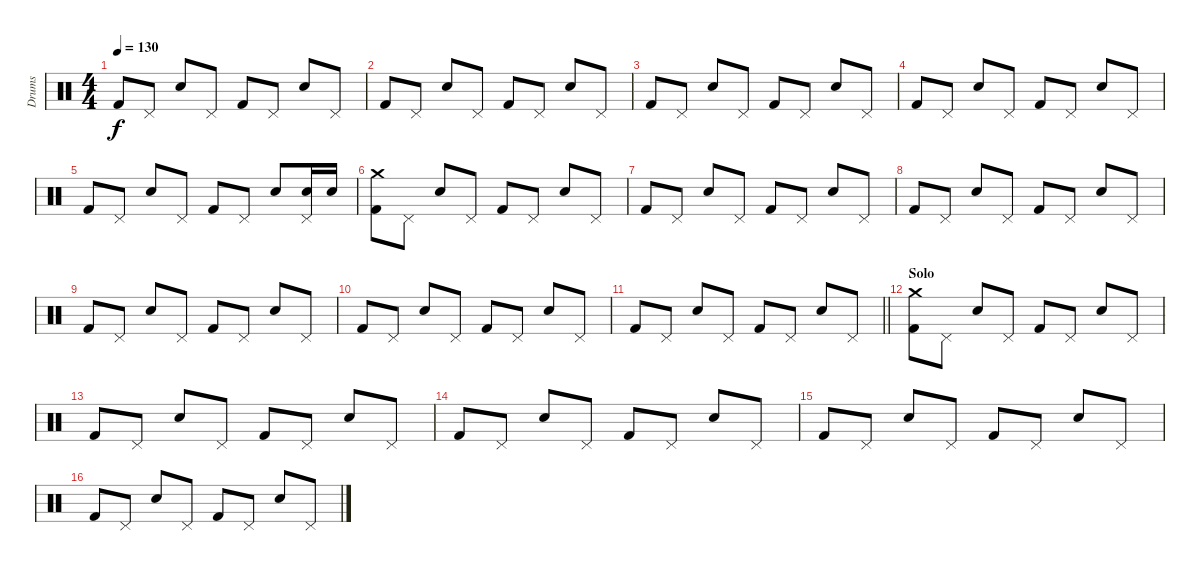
\track ("Drums" "Drums") {instrument percussion}
\staff {score}
\articulation defaults
\ts (4 4)
\tempo 130
\clef neutral
\ks c "Kick (hit) 2".8{dy f} "Pedal Hi-Hat (hit)".8 "Electric Snare (hit)".8 "Pedal Hi-Hat (hit)".8 "Kick (hit) 2".8 "Pedal Hi-Hat (hit)".8 "Electric Snare (hit)".8 "Pedal Hi-Hat (hit)".8
|
"Kick (hit) 2".8 "Pedal Hi-Hat (hit)".8 "Electric Snare (hit)".8 "Pedal Hi-Hat (hit)".8 "Kick (hit) 2".8 "Pedal Hi-Hat (hit)".8 "Electric Snare (hit)".8 "Pedal Hi-Hat (hit)".8 |
"Kick (hit) 2".8 "Pedal Hi-Hat (hit)".8 "Electric Snare (hit)".8 "Pedal Hi-Hat (hit)".8 "Kick (hit) 2".8 "Pedal Hi-Hat (hit)".8 "Electric Snare (hit)".8 "Pedal Hi-Hat (hit)".8 |
"Kick (hit) 2".8 "Pedal Hi-Hat (hit)".8 "Electric Snare (hit)".8 "Pedal Hi-Hat (hit)".8 "Kick (hit) 2".8 "Pedal Hi-Hat (hit)".8 "Electric Snare (hit)".8 "Pedal Hi-Hat (hit)".8 |
"Kick (hit) 2".8 "Pedal Hi-Hat (hit)".8 "Electric Snare (hit)".8 "Pedal Hi-Hat (hit)".8 "Kick (hit) 2".8 "Pedal Hi-Hat (hit)".8 "Electric Snare (hit)".8 ("Electric Snare (hit)" "Pedal Hi-Hat (hit)").16 "Electric Snare (hit)".16 |
("Kick (hit) 2" "Crash medium (hit)").8 "Pedal Hi-Hat (hit)".8 "Electric Snare (hit)".8 "Pedal Hi-Hat (hit)".8 "Kick (hit) 2".8 "Pedal Hi-Hat (hit)".8 "Electric Snare (hit)".8 "Pedal Hi-Hat (hit)".8 |
"Kick (hit) 2".8 "Pedal Hi-Hat (hit)".8 "Electric Snare (hit)".8 "Pedal Hi-Hat (hit)".8 "Kick (hit) 2".8 "Pedal Hi-Hat (hit)".8 "Electric Snare (hit)".8 "Pedal Hi-Hat (hit)".8 |
"Kick (hit) 2".8 "Pedal Hi-Hat (hit)".8 "Electric Snare (hit)".8 "Pedal Hi-Hat (hit)".8 "Kick (hit) 2".8 "Pedal Hi-Hat (hit)".8 "Electric Snare (hit)".8 "Pedal Hi-Hat (hit)".8 |
"Kick (hit) 2".8 "Pedal Hi-Hat (hit)".8 "Electric Snare (hit)".8 "Pedal Hi-Hat (hit)".8 "Kick (hit) 2".8 "Pedal Hi-Hat (hit)".8 "Electric Snare (hit)".8 "Pedal Hi-Hat (hit)".8 |
"Kick (hit) 2".8 "Pedal Hi-Hat (hit)".8 "Electric Snare (hit)".8 "Pedal Hi-Hat (hit)".8 "Kick (hit) 2".8 "Pedal Hi-Hat (hit)".8 "Electric Snare (hit)".8 "Pedal Hi-Hat (hit)".8 |
\barLineRight lightlight "Kick (hit) 2".8 "Pedal Hi-Hat (hit)".8 "Electric Snare (hit)".8 "Pedal Hi-Hat (hit)".8 "Kick (hit) 2".8 "Pedal Hi-Hat (hit)".8 "Electric Snare (hit)".8 "Pedal Hi-Hat (hit)".8
|
\section ("" "Solo")
("Kick (hit) 2" "Crash medium (hit)").8 "Pedal Hi-Hat (hit)".8 "Electric Snare (hit)".8 "Pedal Hi-Hat (hit)".8 "Kick (hit) 2".8 "Pedal Hi-Hat (hit)".8 "Electric Snare (hit)".8 "Pedal Hi-Hat (hit)".8 |
"Kick (hit) 2".8 "Pedal Hi-Hat (hit)".8 "Electric Snare (hit)".8 "Pedal Hi-Hat (hit)".8 "Kick (hit) 2".8 "Pedal Hi-Hat (hit)".8 "Electric Snare (hit)".8 "Pedal Hi-Hat (hit)".8 |
"Kick (hit) 2".8 "Pedal Hi-Hat (hit)".8 "Electric Snare (hit)".8 "Pedal Hi-Hat (hit)".8 "Kick (hit) 2".8 "Pedal Hi-Hat (hit)".8 "Electric Snare (hit)".8 "Pedal Hi-Hat (hit)".8 |
"Kick (hit) 2".8 "Pedal Hi-Hat (hit)".8 "Electric Snare (hit)".8 "Pedal Hi-Hat (hit)".8 "Kick (hit) 2".8 "Pedal Hi-Hat (hit)".8 "Electric Snare (hit)".8 "Pedal Hi-Hat (hit)".8 |
"Kick (hit) 2".8 "Pedal Hi-Hat (hit)".8 "Electric Snare (hit)".8 "Pedal Hi-Hat (hit)".8 "Kick (hit) 2".8 "Pedal Hi-Hat (hit)".8 "Electric Snare (hit)".8 "Pedal Hi-Hat (hit)".8
